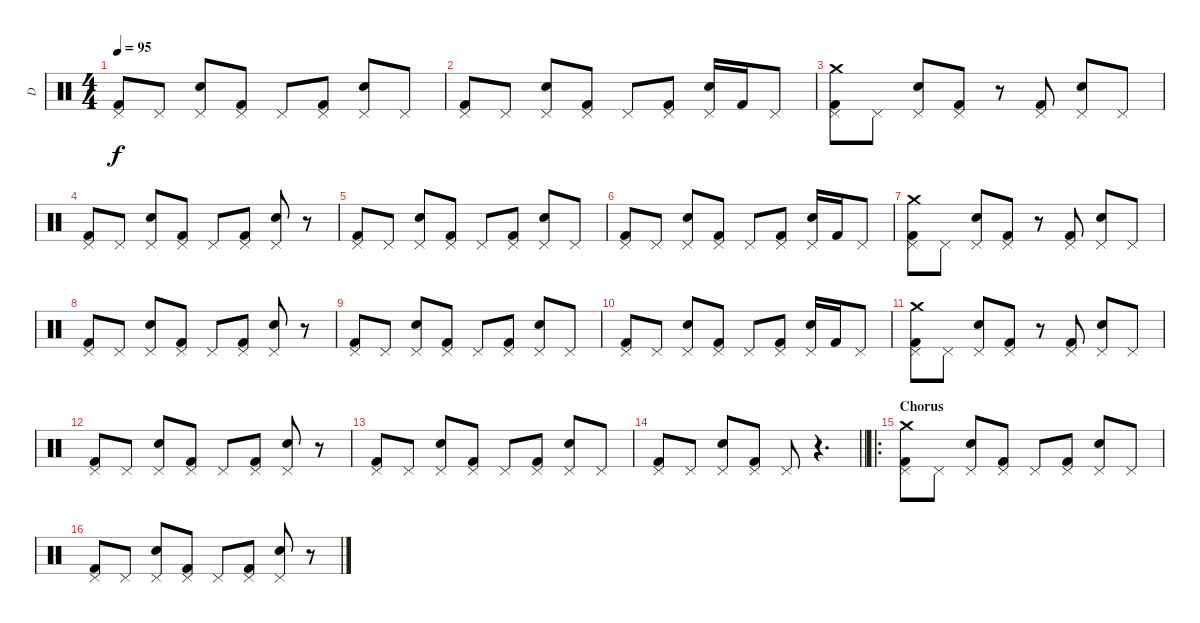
\track ("D" "D") {instrument percussion}
\staff {score}
\articulation defaults
\ts (4 4)
\tempo 95
\clef neutral
\ks c
("Kick (hit) 2" "Pedal Hi-Hat (hit)").8{dy f} "Pedal Hi-Hat (hit)".8 ("Electric Snare (hit)" "Pedal Hi-Hat (hit)").8 ("Kick (hit) 2" "Pedal Hi-Hat (hit)").8 "Pedal Hi-Hat (hit)".8 ("Kick (hit) 2" "Pedal Hi-Hat (hit)").8 ("Electric Snare (hit)" "Pedal Hi-Hat (hit)").8 "Pedal Hi-Hat (hit)".8 |
("Kick (hit) 2" "Pedal Hi-Hat (hit)").8 "Pedal Hi-Hat (hit)".8 ("Electric Snare (hit)" "Pedal Hi-Hat (hit)").8 ("Kick (hit) 2" "Pedal Hi-Hat (hit)").8 "Pedal Hi-Hat (hit)".8 ("Kick (hit) 2" "Pedal Hi-Hat (hit)").8 ("Electric Snare (hit)" "Pedal Hi-Hat (hit)").16 "Kick (hit) 2".16 "Pedal Hi-Hat (hit)".8 |
("Crash medium (hit)" "Kick (hit) 2" "Pedal Hi-Hat (hit)").8 "Pedal Hi-Hat (hit)".8 ("Electric Snare (hit)" "Pedal Hi-Hat (hit)").8 ("Kick (hit) 2" "Pedal Hi-Hat (hit)").8 r.8 ("Kick (hit) 2" "Pedal Hi-Hat (hit)").8 ("Electric Snare (hit)" "Pedal Hi-Hat (hit)").8 "Pedal Hi-Hat (hit)".8 |
("Kick (hit) 2" "Pedal Hi-Hat (hit)").8 "Pedal Hi-Hat (hit)".8 ("Electric Snare (hit)" "Pedal Hi-Hat (hit)").8 ("Kick (hit) 2" "Pedal Hi-Hat (hit)").8 "Pedal Hi-Hat (hit)".8 ("Kick (hit) 2" "Pedal Hi-Hat (hit)").8 ("Electric Snare (hit)" "Pedal Hi-Hat (hit)").8 r.8 |
("Kick (hit) 2" "Pedal Hi-Hat (hit)").8 "Pedal Hi-Hat (hit)".8 ("Electric Snare (hit)" "Pedal Hi-Hat (hit)").8 ("Kick (hit) 2" "Pedal Hi-Hat (hit)").8 "Pedal Hi-Hat (hit)".8 ("Kick (hit) 2" "Pedal Hi-Hat (hit)").8 ("Electric Snare (hit)" "Pedal Hi-Hat (hit)").8 "Pedal Hi-Hat (hit)".8 |
("Kick (hit) 2" "Pedal Hi-Hat (hit)").8 "Pedal Hi-Hat (hit)".8 ("Electric Snare (hit)" "Pedal Hi-Hat (hit)").8 ("Kick (hit) 2" "Pedal Hi-Hat (hit)").8 "Pedal Hi-Hat (hit)".8 ("Kick (hit) 2" "Pedal Hi-Hat (hit)").8 ("Electric Snare (hit)" "Pedal Hi-Hat (hit)").16 "Kick (hit) 2".16 "Pedal Hi-Hat (hit)".8 |
("Crash medium (hit)" "Kick (hit) 2" "Pedal Hi-Hat (hit)").8 "Pedal Hi-Hat (hit)".8 ("Electric Snare (hit)" "Pedal Hi-Hat (hit)").8 ("Kick (hit) 2" "Pedal Hi-Hat (hit)").8 r.8 ("Kick (hit) 2" "Pedal Hi-Hat (hit)").8 ("Electric Snare (hit)" "Pedal Hi-Hat (hit)").8 "Pedal Hi-Hat (hit)".8 |
("Kick (hit) 2" "Pedal Hi-Hat (hit)").8 "Pedal Hi-Hat (hit)".8 ("Electric Snare (hit)" "Pedal Hi-Hat (hit)").8 ("Kick (hit) 2" "Pedal Hi-Hat (hit)").8 "Pedal Hi-Hat (hit)".8 ("Kick (hit) 2" "Pedal Hi-Hat (hit)").8 ("Electric Snare (hit)" "Pedal Hi-Hat (hit)").8 r.8 |
("Kick (hit) 2" "Pedal Hi-Hat (hit)").8 "Pedal Hi-Hat (hit)".8 ("Electric Snare (hit)" "Pedal Hi-Hat (hit)").8 ("Kick (hit) 2" "Pedal Hi-Hat (hit)").8 "Pedal Hi-Hat (hit)".8 ("Kick (hit) 2" "Pedal Hi-Hat (hit)").8 ("Electric Snare (hit)" "Pedal Hi-Hat (hit)").8 "Pedal Hi-Hat (hit)".8 |
("Kick (hit) 2" "Pedal Hi-Hat (hit)").8 "Pedal Hi-Hat (hit)".8 ("Electric Snare (hit)" "Pedal Hi-Hat (hit)").8 ("Kick (hit) 2" "Pedal Hi-Hat (hit)").8 "Pedal Hi-Hat (hit)".8 ("Kick (hit) 2" "Pedal Hi-Hat (hit)").8 ("Electric Snare (hit)" "Pedal Hi-Hat (hit)").16 "Kick (hit) 2".16 "Pedal Hi-Hat (hit)".8 |
("Crash medium (hit)" "Kick (hit) 2" "Pedal Hi-Hat (hit)").8 "Pedal Hi-Hat (hit)".8 ("Electric Snare (hit)" "Pedal Hi-Hat (hit)").8 ("Kick (hit) 2" "Pedal Hi-Hat (hit)").8 r.8 ("Kick (hit) 2" "Pedal Hi-Hat (hit)").8 ("Electric Snare (hit)" "Pedal Hi-Hat (hit)").8 "Pedal Hi-Hat (hit)".8 |
("Kick (hit) 2" "Pedal Hi-Hat (hit)").8 "Pedal Hi-Hat (hit)".8 ("Electric Snare (hit)" "Pedal Hi-Hat (hit)").8 ("Kick (hit) 2" "Pedal Hi-Hat (hit)").8 "Pedal Hi-Hat (hit)".8 ("Kick (hit) 2" "Pedal Hi-Hat (hit)").8 ("Electric Snare (hit)" "Pedal Hi-Hat (hit)").8 r.8 |
("Kick (hit) 2" "Pedal Hi-Hat (hit)").8 "Pedal Hi-Hat (hit)".8 ("Electric Snare (hit)" "Pedal Hi-Hat (hit)").8 ("Kick (hit) 2" "Pedal Hi-Hat (hit)").8 "Pedal Hi-Hat (hit)".8 ("Kick (hit) 2" "Pedal Hi-Hat (hit)").8 ("Electric Snare (hit)" "Pedal Hi-Hat (hit)").8 "Pedal Hi-Hat (hit)".8 |
\barLineRight lightlight
("Kick (hit) 2" "Pedal Hi-Hat (hit)").8 "Pedal Hi-Hat (hit)".8 ("Electric Snare (hit)" "Pedal Hi-Hat (hit)").8 ("Kick (hit) 2" "Pedal Hi-Hat (hit)").8 "Pedal Hi-Hat (hit)".8 r.4{d} |
\ro
\section ("" "Chorus")
("Crash medium (hit)" "Kick (hit) 2" "Pedal Hi-Hat (hit)").8 "Pedal Hi-Hat (hit)".8 ("Electric Snare (hit)" "Pedal Hi-Hat (hit)").8 ("Kick (hit) 2" "Pedal Hi-Hat (hit)").8 "Pedal Hi-Hat (hit)".8 ("Kick (hit) 2" "Pedal Hi-Hat (hit)").8 ("Electric Snare (hit)" "Pedal Hi-Hat (hit)").8 "Pedal Hi-Hat (hit)".8 |
("Kick (hit) 2" "Pedal Hi-Hat (hit)").8 "Pedal Hi-Hat (hit)".8 ("Electric Snare (hit)" "Pedal Hi-Hat (hit)").8 ("Kick (hit) 2" "Pedal Hi-Hat (hit)").8 "Pedal Hi-Hat (hit)".8 ("Kick (hit) 2" "Pedal Hi-Hat (hit)").8 ("Electric Snare (hit)" "Pedal Hi-Hat (hit)").8 r.8
